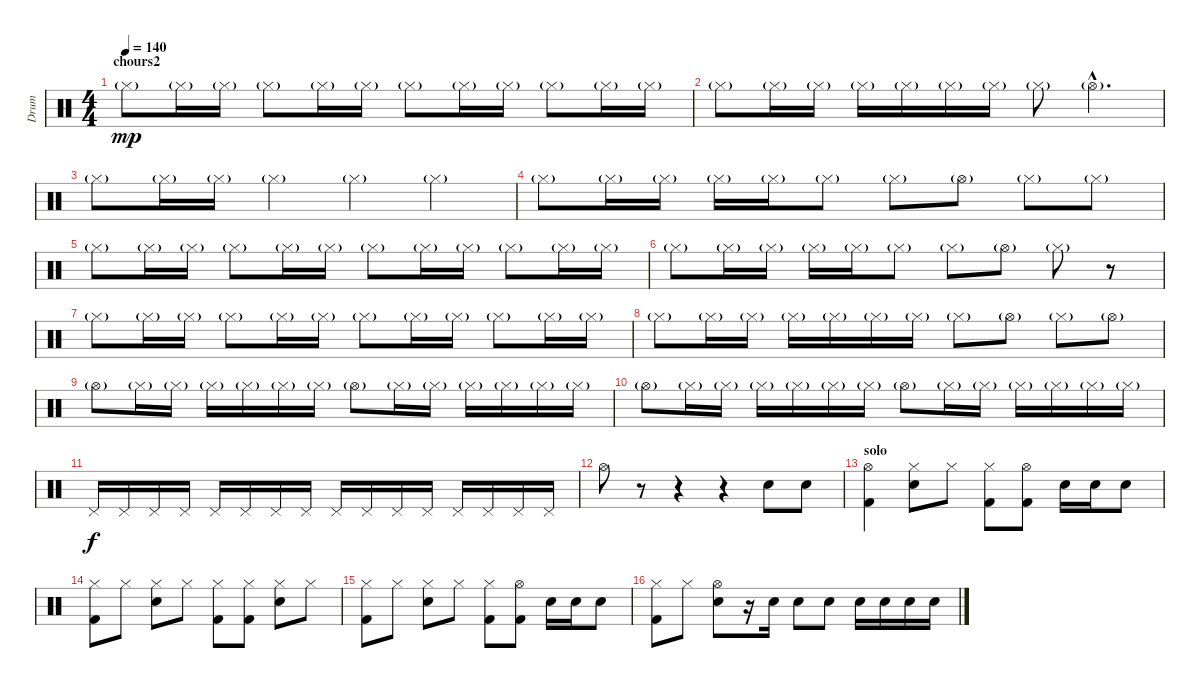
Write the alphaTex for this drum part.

\track ("Drum" "Drum") {instrument percussion}
\staff {score}
\articulation defaults
\ts (4 4)
\section ("" "chours2")
\tempo 140
\clef neutral
\ks c "Hi-Hat (closed)"{g}.8{dy mp} "Hi-Hat (closed)"{g}.16 "Hi-Hat (closed)"{g}.16 "Hi-Hat (closed)"{g}.8 "Hi-Hat (closed)"{g}.16 "Hi-Hat (closed)"{g}.16 "Hi-Hat (closed)"{g}.8 "Hi-Hat (closed)"{g}.16 "Hi-Hat (closed)"{g}.16 "Hi-Hat (closed)"{g}.8 "Hi-Hat (closed)"{g}.16 "Hi-Hat (closed)"{g}.16
|
"Hi-Hat (closed)"{g}.8 "Hi-Hat (closed)"{g}.16 "Hi-Hat (closed)"{g}.16 "Hi-Hat (closed)"{g}.16 "Hi-Hat (closed)"{g}.16 "Hi-Hat (closed)"{g}.16 "Hi-Hat (closed)"{g}.16 "Hi-Hat (closed)"{g}.8 "Hi-Hat (open)"{g hac}.4{d} |
"Hi-Hat (closed)"{g}.8 "Hi-Hat (closed)"{g}.16 "Hi-Hat (closed)"{g}.16 "Hi-Hat (closed)"{g}.4 "Hi-Hat (closed)"{g}.4 "Hi-Hat (closed)"{g}.4 |
"Hi-Hat (closed)"{g}.8 "Hi-Hat (closed)"{g}.16 "Hi-Hat (closed)"{g}.16 "Hi-Hat (closed)"{g}.16 "Hi-Hat (closed)"{g}.16 "Hi-Hat (closed)"{g}.8 "Hi-Hat (closed)"{g}.8 "Hi-Hat (open)"{g}.8 "Hi-Hat (closed)"{g}.8 "Hi-Hat (closed)"{g}.8 |
"Hi-Hat (closed)"{g}.8 "Hi-Hat (closed)"{g}.16 "Hi-Hat (closed)"{g}.16 "Hi-Hat (closed)"{g}.8 "Hi-Hat (closed)"{g}.16 "Hi-Hat (closed)"{g}.16 "Hi-Hat (closed)"{g}.8 "Hi-Hat (closed)"{g}.16 "Hi-Hat (closed)"{g}.16 "Hi-Hat (closed)"{g}.8 "Hi-Hat (closed)"{g}.16 "Hi-Hat (closed)"{g}.16 |
"Hi-Hat (closed)"{g}.8 "Hi-Hat (closed)"{g}.16 "Hi-Hat (closed)"{g}.16 "Hi-Hat (closed)"{g}.16 "Hi-Hat (closed)"{g}.16 "Hi-Hat (closed)"{g}.8 "Hi-Hat (closed)"{g}.8 "Hi-Hat (open)"{g}.8 "Hi-Hat (closed)"{g}.8 r.8 |
"Hi-Hat (closed)"{g}.8 "Hi-Hat (closed)"{g}.16 "Hi-Hat (closed)"{g}.16 "Hi-Hat (closed)"{g}.8 "Hi-Hat (closed)"{g}.16 "Hi-Hat (closed)"{g}.16 "Hi-Hat (closed)"{g}.8 "Hi-Hat (closed)"{g}.16 "Hi-Hat (closed)"{g}.16 "Hi-Hat (closed)"{g}.8 "Hi-Hat (closed)"{g}.16 "Hi-Hat (closed)"{g}.16 |
"Hi-Hat (closed)"{g}.8 "Hi-Hat (closed)"{g}.16 "Hi-Hat (closed)"{g}.16 "Hi-Hat (closed)"{g}.16 "Hi-Hat (closed)"{g}.16 "Hi-Hat (closed)"{g}.16 "Hi-Hat (closed)"{g}.16 "Hi-Hat (closed)"{g}.8 "Hi-Hat (open)"{g}.8 "Hi-Hat (closed)"{g}.8 "Hi-Hat (open)"{g}.8 |
"Hi-Hat (open)"{g}.8 "Hi-Hat (closed)"{g}.16 "Hi-Hat (closed)"{g}.16 "Hi-Hat (closed)"{g}.16 "Hi-Hat (closed)"{g}.16 "Hi-Hat (closed)"{g}.16 "Hi-Hat (closed)"{g}.16 "Hi-Hat (open)"{g}.8 "Hi-Hat (closed)"{g}.16 "Hi-Hat (closed)"{g}.16 "Hi-Hat (closed)"{g}.16 "Hi-Hat (closed)"{g}.16 "Hi-Hat (closed)"{g}.16 "Hi-Hat (closed)"{g}.16 |
"Hi-Hat (open)"{g}.8 "Hi-Hat (closed)"{g}.16 "Hi-Hat (closed)"{g}.16 "Hi-Hat (closed)"{g}.16 "Hi-Hat (closed)"{g}.16 "Hi-Hat (closed)"{g}.16 "Hi-Hat (closed)"{g}.16 "Hi-Hat (open)"{g}.8 "Hi-Hat (closed)"{g}.16 "Hi-Hat (closed)"{g}.16 "Hi-Hat (closed)"{g}.16 "Hi-Hat (closed)"{g}.16 "Hi-Hat (closed)"{g}.16 "Hi-Hat (closed)"{g}.16 |
"Pedal Hi-Hat (hit)".16{dy f} "Pedal Hi-Hat (hit)".16 "Pedal Hi-Hat (hit)".16 "Pedal Hi-Hat (hit)".16 "Pedal Hi-Hat (hit)".16 "Pedal Hi-Hat (hit)".16 "Pedal Hi-Hat (hit)".16 "Pedal Hi-Hat (hit)".16 "Pedal Hi-Hat (hit)".16 "Pedal Hi-Hat (hit)".16 "Pedal Hi-Hat (hit)".16 "Pedal Hi-Hat (hit)".16 "Pedal Hi-Hat (hit)".16 "Pedal Hi-Hat (hit)".16 "Pedal Hi-Hat (hit)".16 "Pedal Hi-Hat (hit)".16 |
"Hi-Hat (open)".8 r.8 r.4 r.4 "Electric Snare (hit)".8 "Electric Snare (hit)".8 |
\section ("" "solo")
("Hi-Hat (open)" "Kick (hit) 2").4 ("Hi-Hat (closed)" "Electric Snare (hit)").8 "Hi-Hat (closed)".8 ("Hi-Hat (closed)" "Kick (hit) 2").8 ("Hi-Hat (open)" "Kick (hit) 2").8 "Electric Snare (hit)".16 "Electric Snare (hit)".16 "Electric Snare (hit)".8 |
("Hi-Hat (closed)" "Kick (hit) 2").8 "Hi-Hat (closed)".8 ("Hi-Hat (closed)" "Electric Snare (hit)").8 "Hi-Hat (closed)".8 ("Hi-Hat (closed)" "Kick (hit) 2").8 ("Hi-Hat (closed)" "Kick (hit) 2").8 ("Hi-Hat (closed)" "Electric Snare (hit)").8 "Hi-Hat (closed)".8 |
("Hi-Hat (closed)" "Kick (hit) 2").8 "Hi-Hat (closed)".8 ("Hi-Hat (closed)" "Electric Snare (hit)").8 "Hi-Hat (closed)".8 ("Hi-Hat (closed)" "Kick (hit) 2").8 ("Hi-Hat (open)" "Kick (hit) 2").8 "Electric Snare (hit)".16 "Electric Snare (hit)".16 "Electric Snare (hit)".8 |
("Hi-Hat (closed)" "Kick (hit) 2").8 "Hi-Hat (closed)".8 ("Hi-Hat (open)" "Electric Snare (hit)").8 r.16 "Electric Snare (hit)".16 "Electric Snare (hit)".8 "Electric Snare (hit)".8 "Electric Snare (hit)".16 "Electric Snare (hit)".16 "Electric Snare (hit)".16 "Electric Snare (hit)".16
